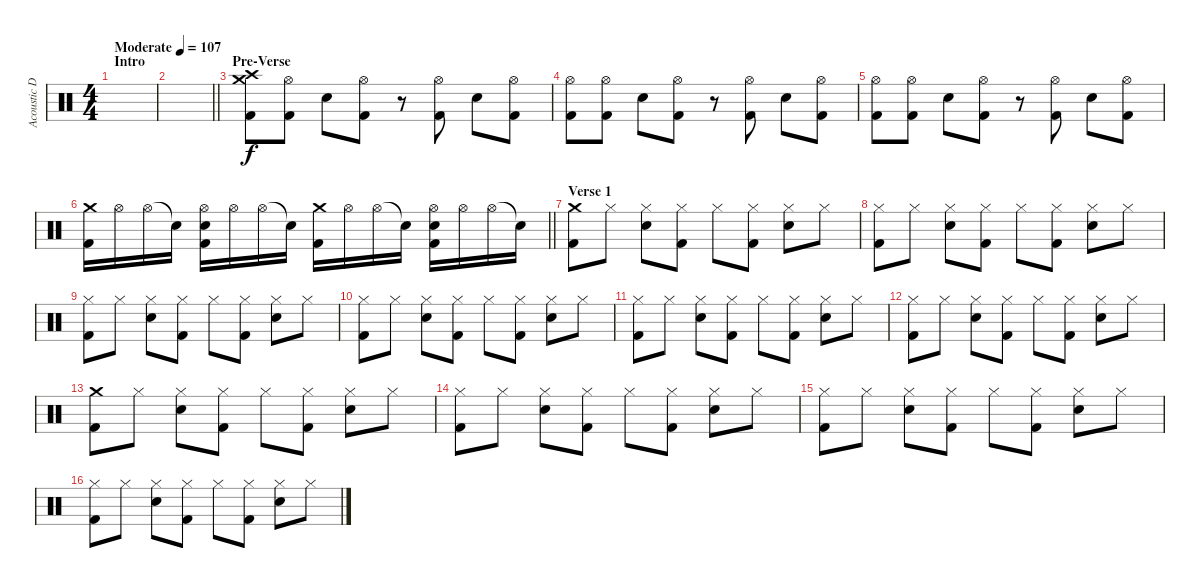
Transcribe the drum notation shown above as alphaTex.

\track ("Acoustic Drums" "Acoustic D") {instrument percussion}
\staff {score}
\articulation defaults
\ts (4 4)
\section ("" "Intro")
\tempo (107 "Moderate")
\clef neutral
\ks c
|
\barLineRight lightlight
|
\section ("" "Pre-Verse")
("Crash medium (hit)" "Crash high (hit)" "Kick (hit) 2").8 ("Hi-Hat (open)" "Kick (hit) 2").8 "Snare (hit) 2".8 ("Hi-Hat (open)" "Kick (hit) 2").8 r.8 ("Hi-Hat (open)" "Kick (hit) 2").8 "Snare (hit) 2".8 ("Hi-Hat (open)" "Kick (hit) 2").8 |
("Hi-Hat (open)" "Kick (hit) 2").8 ("Hi-Hat (open)" "Kick (hit) 2").8 "Snare (hit) 2".8 ("Hi-Hat (open)" "Kick (hit) 2").8 r.8 ("Hi-Hat (open)" "Kick (hit) 2").8 "Snare (hit) 2".8 ("Hi-Hat (open)" "Kick (hit) 2").8 |
("Hi-Hat (open)" "Kick (hit) 2").8 ("Hi-Hat (open)" "Kick (hit) 2").8 "Snare (hit) 2".8 ("Hi-Hat (open)" "Kick (hit) 2").8 r.8 ("Hi-Hat (open)" "Kick (hit) 2").8 "Snare (hit) 2".8 ("Hi-Hat (open)" "Kick (hit) 2").8 |
\barLineRight lightlight
("Crash medium (hit)" "Kick (hit) 2").16 "Hi-Hat (open)".16 "Hi-Hat (open)".16 "Snare (hit)"{t}.16 ("Hi-Hat (open)" "Snare (hit) 2" "Kick (hit) 2").16 "Hi-Hat (open)".16 "Hi-Hat (open)".16 "Snare (hit)"{t}.16 ("Crash medium (hit)" "Kick (hit) 2").16 "Hi-Hat (open)".16 "Hi-Hat (open)".16 "Snare (hit)"{t}.16 ("Hi-Hat (open)" "Snare (hit) 2" "Kick (hit) 2").16 "Hi-Hat (open)".16 "Hi-Hat (open)".16 "Snare (hit)"{t}.16 |
\section ("" "Verse 1")
("Crash medium (hit)" "Kick (hit) 2").8 "Hi-Hat (closed)".8 ("Hi-Hat (closed)" "Snare (hit) 2").8 ("Hi-Hat (closed)" "Kick (hit) 2").8 "Hi-Hat (closed)".8 ("Hi-Hat (closed)" "Kick (hit) 2").8 ("Hi-Hat (closed)" "Snare (hit) 2").8 "Hi-Hat (closed)".8 |
("Hi-Hat (closed)" "Kick (hit) 2").8 "Hi-Hat (closed)".8 ("Hi-Hat (closed)" "Snare (hit) 2").8 ("Hi-Hat (closed)" "Kick (hit) 2").8 "Hi-Hat (closed)".8 ("Hi-Hat (closed)" "Kick (hit) 2").8 ("Hi-Hat (closed)" "Snare (hit) 2").8 "Hi-Hat (closed)".8 |
("Hi-Hat (closed)" "Kick (hit) 2").8 "Hi-Hat (closed)".8 ("Hi-Hat (closed)" "Snare (hit) 2").8 ("Hi-Hat (closed)" "Kick (hit) 2").8 "Hi-Hat (closed)".8 ("Hi-Hat (closed)" "Kick (hit) 2").8 ("Hi-Hat (closed)" "Snare (hit) 2").8 "Hi-Hat (closed)".8 |
("Hi-Hat (closed)" "Kick (hit) 2").8 "Hi-Hat (closed)".8 ("Hi-Hat (closed)" "Snare (hit) 2").8 ("Hi-Hat (closed)" "Kick (hit) 2").8 "Hi-Hat (closed)".8 ("Hi-Hat (closed)" "Kick (hit) 2").8 ("Hi-Hat (closed)" "Snare (hit) 2").8 "Hi-Hat (closed)".8 |
("Hi-Hat (closed)" "Kick (hit) 2").8 "Hi-Hat (closed)".8 ("Hi-Hat (closed)" "Snare (hit) 2").8 ("Hi-Hat (closed)" "Kick (hit) 2").8 "Hi-Hat (closed)".8 ("Hi-Hat (closed)" "Kick (hit) 2").8 ("Hi-Hat (closed)" "Snare (hit) 2").8 "Hi-Hat (closed)".8 |
("Hi-Hat (closed)" "Kick (hit) 2").8 "Hi-Hat (closed)".8 ("Hi-Hat (closed)" "Snare (hit) 2").8 ("Hi-Hat (closed)" "Kick (hit) 2").8 "Hi-Hat (closed)".8 ("Hi-Hat (closed)" "Kick (hit) 2").8 ("Hi-Hat (closed)" "Snare (hit) 2").8 "Hi-Hat (closed)".8 |
("Crash medium (hit)" "Kick (hit) 2").8 "Hi-Hat (closed)".8 ("Hi-Hat (closed)" "Snare (hit) 2").8 ("Hi-Hat (closed)" "Kick (hit) 2").8 "Hi-Hat (closed)".8 ("Hi-Hat (closed)" "Kick (hit) 2").8 ("Hi-Hat (closed)" "Snare (hit) 2").8 "Hi-Hat (closed)".8 |
("Hi-Hat (closed)" "Kick (hit) 2").8 "Hi-Hat (closed)".8 ("Hi-Hat (closed)" "Snare (hit) 2").8 ("Hi-Hat (closed)" "Kick (hit) 2").8 "Hi-Hat (closed)".8 ("Hi-Hat (closed)" "Kick (hit) 2").8 ("Hi-Hat (closed)" "Snare (hit) 2").8 "Hi-Hat (closed)".8 |
("Hi-Hat (closed)" "Kick (hit) 2").8 "Hi-Hat (closed)".8 ("Hi-Hat (closed)" "Snare (hit) 2").8 ("Hi-Hat (closed)" "Kick (hit) 2").8 "Hi-Hat (closed)".8 ("Hi-Hat (closed)" "Kick (hit) 2").8 ("Hi-Hat (closed)" "Snare (hit) 2").8 "Hi-Hat (closed)".8 |
("Hi-Hat (closed)" "Kick (hit) 2").8 "Hi-Hat (closed)".8 ("Hi-Hat (closed)" "Snare (hit) 2").8 ("Hi-Hat (closed)" "Kick (hit) 2").8 "Hi-Hat (closed)".8 ("Hi-Hat (closed)" "Kick (hit) 2").8 ("Hi-Hat (closed)" "Snare (hit) 2").8 "Hi-Hat (closed)".8
